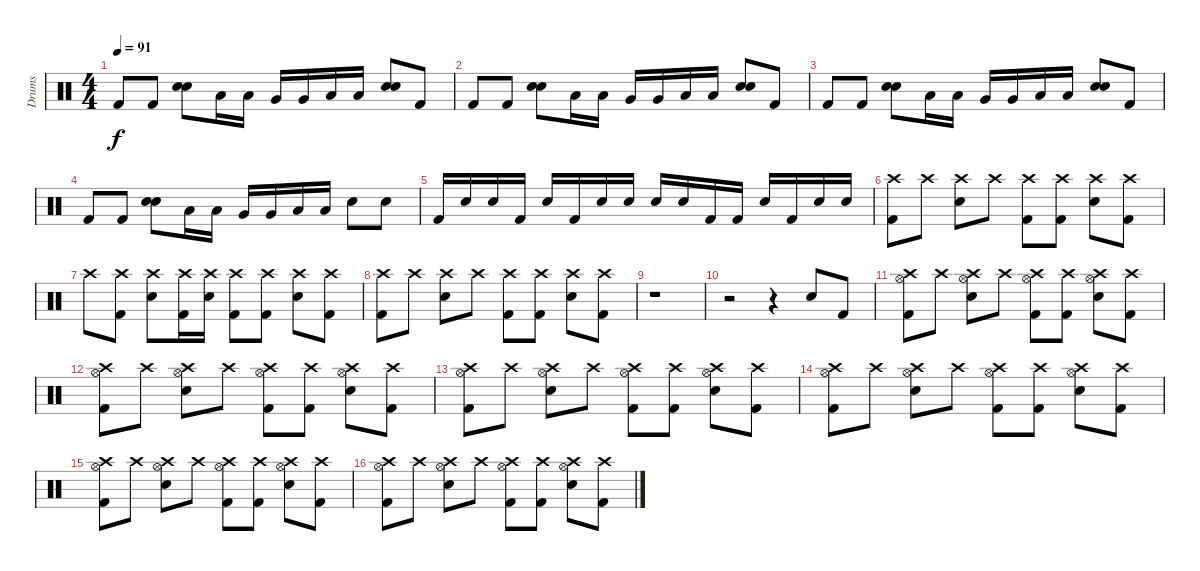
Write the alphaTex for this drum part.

\track ("Drums" "Drums") {instrument percussion}
\staff {score}
\articulation defaults
\ts (4 4)
\tempo 91
\clef neutral
\ks c "Kick (hit) 2".8{dy f} "Kick (hit) 2".8
("Electric Snare (hit)" "Electric Snare (hit)").8 "Low Tom (hit)".16 "Low Tom (hit)".16 "Very Low Tom (hit)".16 "Very Low Tom (hit)".16 "Low Floor Tom (hit)".16 "Low Floor Tom (hit)".16 ("Electric Snare (hit)" "Electric Snare (hit)").8 "Kick (hit) 2".8 |
"Kick (hit) 2".8 "Kick (hit) 2".8 ("Electric Snare (hit)" "Electric Snare (hit)").8 "Low Tom (hit)".16 "Low Tom (hit)".16 "Very Low Tom (hit)".16 "Very Low Tom (hit)".16 "Low Floor Tom (hit)".16 "Low Floor Tom (hit)".16 ("Electric Snare (hit)" "Electric Snare (hit)").8 "Kick (hit) 2".8 |
"Kick (hit) 2".8 "Kick (hit) 2".8 ("Electric Snare (hit)" "Electric Snare (hit)").8 "Low Tom (hit)".16 "Low Tom (hit)".16 "Very Low Tom (hit)".16 "Very Low Tom (hit)".16 "Low Floor Tom (hit)".16 "Low Floor Tom (hit)".16 ("Electric Snare (hit)" "Electric Snare (hit)").8 "Kick (hit) 2".8 |
"Kick (hit) 2".8 "Kick (hit) 2".8 ("Electric Snare (hit)" "Electric Snare (hit)").8 "Low Tom (hit)".16 "Low Tom (hit)".16 "Very Low Tom (hit)".16 "Very Low Tom (hit)".16 "Low Floor Tom (hit)".16 "Low Floor Tom (hit)".16 "Electric Snare (hit)".8 "Electric Snare (hit)".8 |
"Kick (hit) 2".16 "Electric Snare (hit)".16 "Electric Snare (hit)".16 "Kick (hit) 2".16 "Electric Snare (hit)".16 "Kick (hit) 2".16 "Electric Snare (hit)".16 "Electric Snare (hit)".16 "Electric Snare (hit)".16 "Electric Snare (hit)".16 "Kick (hit) 2".16 "Kick (hit) 2".16 "Electric Snare (hit)".16 "Kick (hit) 2".16 "Electric Snare (hit)".16 "Electric Snare (hit)".16 |
("Crash high (hit)" "Kick (hit) 2").8 "Crash high (hit)".8 ("Crash high (hit)" "Electric Snare (hit)").8 "Crash high (hit)".8 ("Crash high (hit)" "Kick (hit) 2").8 ("Crash high (hit)" "Kick (hit) 2").8 ("Crash high (hit)" "Electric Snare (hit)").8 ("Crash high (hit)" "Kick (hit) 2").8 |
"Crash high (hit)".8 ("Crash high (hit)" "Kick (hit) 2").8 ("Crash high (hit)" "Electric Snare (hit)").8 ("Crash high (hit)" "Kick (hit) 2").16 ("Crash high (hit)" "Electric Snare (hit)").16 ("Crash high (hit)" "Kick (hit) 2").8 ("Crash high (hit)" "Kick (hit) 2").8 ("Crash high (hit)" "Electric Snare (hit)").8 ("Crash high (hit)" "Kick (hit) 2").8 |
("Crash high (hit)" "Kick (hit) 2").8 "Crash high (hit)".8 ("Crash high (hit)" "Electric Snare (hit)").8 "Crash high (hit)".8 ("Crash high (hit)" "Kick (hit) 2").8 ("Crash high (hit)" "Kick (hit) 2").8 ("Crash high (hit)" "Electric Snare (hit)").8 ("Crash high (hit)" "Kick (hit) 2").8 |
r.1 |
r.2 r.4 "Electric Snare (hit)".8 "Kick (hit) 2".8 |
("Crash high (hit)" "Hi-Hat (open)" "Kick (hit) 2").8 "Crash high (hit)".8 ("Crash high (hit)" "Hi-Hat (open)" "Electric Snare (hit)").8 "Crash high (hit)".8 ("Crash high (hit)" "Hi-Hat (open)" "Kick (hit) 2").8 ("Crash high (hit)" "Kick (hit) 2").8 ("Crash high (hit)" "Hi-Hat (open)" "Electric Snare (hit)").8 ("Crash high (hit)" "Kick (hit) 2").8 |
("Crash high (hit)" "Hi-Hat (open)" "Kick (hit) 2").8 "Crash high (hit)".8 ("Crash high (hit)" "Hi-Hat (open)" "Electric Snare (hit)").8 "Crash high (hit)".8 ("Crash high (hit)" "Hi-Hat (open)" "Kick (hit) 2").8 ("Crash high (hit)" "Kick (hit) 2").8 ("Crash high (hit)" "Hi-Hat (open)" "Electric Snare (hit)").8 ("Crash high (hit)" "Kick (hit) 2").8 |
("Crash high (hit)" "Hi-Hat (open)" "Kick (hit) 2").8 "Crash high (hit)".8 ("Crash high (hit)" "Hi-Hat (open)" "Electric Snare (hit)").8 "Crash high (hit)".8 ("Crash high (hit)" "Hi-Hat (open)" "Kick (hit) 2").8 ("Crash high (hit)" "Kick (hit) 2").8 ("Crash high (hit)" "Hi-Hat (open)" "Electric Snare (hit)").8 ("Crash high (hit)" "Kick (hit) 2").8 |
("Crash high (hit)" "Hi-Hat (open)" "Kick (hit) 2").8 "Crash high (hit)".8 ("Crash high (hit)" "Hi-Hat (open)" "Electric Snare (hit)").8 "Crash high (hit)".8 ("Crash high (hit)" "Hi-Hat (open)" "Kick (hit) 2").8 ("Crash high (hit)" "Kick (hit) 2").8 ("Crash high (hit)" "Hi-Hat (open)" "Electric Snare (hit)").8 ("Crash high (hit)" "Kick (hit) 2").8 |
("Crash high (hit)" "Hi-Hat (open)" "Kick (hit) 2").8 "Crash high (hit)".8 ("Crash high (hit)" "Hi-Hat (open)" "Electric Snare (hit)").8 "Crash high (hit)".8 ("Crash high (hit)" "Hi-Hat (open)" "Kick (hit) 2").8 ("Crash high (hit)" "Kick (hit) 2").8 ("Crash high (hit)" "Hi-Hat (open)" "Electric Snare (hit)").8 ("Crash high (hit)" "Kick (hit) 2").8 |
("Crash high (hit)" "Hi-Hat (open)" "Kick (hit) 2").8 "Crash high (hit)".8 ("Crash high (hit)" "Hi-Hat (open)" "Electric Snare (hit)").8 "Crash high (hit)".8 ("Crash high (hit)" "Hi-Hat (open)" "Kick (hit) 2").8 ("Crash high (hit)" "Kick (hit) 2").8 ("Crash high (hit)" "Hi-Hat (open)" "Electric Snare (hit)").8 ("Crash high (hit)" "Kick (hit) 2").8
